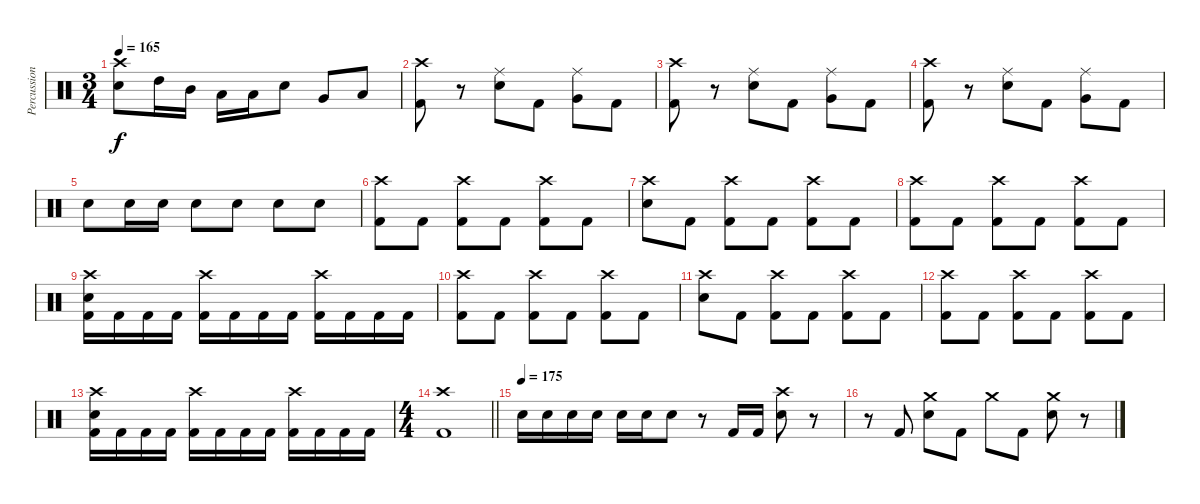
\track ("Percussion (Moose)" "Percussion") {instrument percussion}
\staff {score}
\articulation defaults
\ts (3 4)
\tempo 165
\clef neutral
\ks c
("Crash high (hit)" "Electric Snare (hit)").8{dy f} "High Tom (hit)".16 "Mid Tom (hit)".16 "Low Tom (hit)".16 "Low Tom (hit)".16 "Electric Snare (hit)".8 "Very Low Tom (hit)".8 "Low Floor Tom (hit)".8 |
("Crash high (hit)" "Kick (hit) 2").8 r.8 ("Ride (middle)" "Electric Snare (hit)").8 "Kick (hit) 2".8 ("Ride (middle)" "Very Low Tom (hit)").8 "Kick (hit) 2".8 |
("Crash high (hit)" "Kick (hit) 2").8 r.8 ("Ride (middle)" "Electric Snare (hit)").8 "Kick (hit) 2".8 ("Ride (middle)" "Very Low Tom (hit)").8 "Kick (hit) 2".8 |
("Crash high (hit)" "Kick (hit) 2").8 r.8 ("Ride (middle)" "Electric Snare (hit)").8 "Kick (hit) 2".8 ("Ride (middle)" "Very Low Tom (hit)").8 "Kick (hit) 2".8 |
"Electric Snare (hit)".8 "Electric Snare (hit)".16 "Electric Snare (hit)".16 "Electric Snare (hit)".8 "Electric Snare (hit)".8 "Electric Snare (hit)".8 "Electric Snare (hit)".8 |
("Crash high (hit)" "Kick (hit) 2").8 "Kick (hit) 2".8 ("Crash high (hit)" "Kick (hit) 2").8 "Kick (hit) 2".8 ("Crash high (hit)" "Kick (hit) 2").8 "Kick (hit) 2".8 |
("Crash high (hit)" "Electric Snare (hit)").8 "Kick (hit) 2".8 ("Crash high (hit)" "Kick (hit) 2").8 "Kick (hit) 2".8 ("Crash high (hit)" "Kick (hit) 2").8 "Kick (hit) 2".8 |
("Crash high (hit)" "Kick (hit) 2").8 "Kick (hit) 2".8 ("Crash high (hit)" "Kick (hit) 2").8 "Kick (hit) 2".8 ("Crash high (hit)" "Kick (hit) 2").8 "Kick (hit) 2".8 |
("Crash high (hit)" "Electric Snare (hit)" "Kick (hit) 2").16 "Kick (hit) 2".16 "Kick (hit) 2".16 "Kick (hit) 2".16 ("Crash high (hit)" "Kick (hit) 2").16 "Kick (hit) 2".16 "Kick (hit) 2".16 "Kick (hit) 2".16 ("Crash high (hit)" "Kick (hit) 2").16 "Kick (hit) 2".16 "Kick (hit) 2".16 "Kick (hit) 2".16 |
("Crash high (hit)" "Kick (hit) 2").8 "Kick (hit) 2".8 ("Crash high (hit)" "Kick (hit) 2").8 "Kick (hit) 2".8 ("Crash high (hit)" "Kick (hit) 2").8 "Kick (hit) 2".8 |
("Crash high (hit)" "Electric Snare (hit)").8 "Kick (hit) 2".8 ("Crash high (hit)" "Kick (hit) 2").8 "Kick (hit) 2".8 ("Crash high (hit)" "Kick (hit) 2").8 "Kick (hit) 2".8 |
("Crash high (hit)" "Kick (hit) 2").8 "Kick (hit) 2".8 ("Crash high (hit)" "Kick (hit) 2").8 "Kick (hit) 2".8 ("Crash high (hit)" "Kick (hit) 2").8 "Kick (hit) 2".8 |
("Crash high (hit)" "Electric Snare (hit)" "Kick (hit) 2").16 "Kick (hit) 2".16 "Kick (hit) 2".16 "Kick (hit) 2".16 ("Crash high (hit)" "Kick (hit) 2").16 "Kick (hit) 2".16 "Kick (hit) 2".16 "Kick (hit) 2".16 ("Crash high (hit)" "Kick (hit) 2").16 "Kick (hit) 2".16 "Kick (hit) 2".16 "Kick (hit) 2".16 |
\ts (4 4)
\barLineRight lightlight
("Crash high (hit)" "Kick (hit) 2").1 |
\tempo (175)
"Electric Snare (hit)".16 "Electric Snare (hit)".16 "Electric Snare (hit)".16 "Electric Snare (hit)".16 "Electric Snare (hit)".16 "Electric Snare (hit)".16 "Electric Snare (hit)".8 r.8 "Kick (hit) 2".16 "Kick (hit) 2".16 ("Crash high (hit)" "Electric Snare (hit)").8 r.8 |
r.8 "Kick (hit) 2".8 ("Crash medium (hit)" "Electric Snare (hit)").8 "Kick (hit) 2".8 "Crash medium (hit)".8 "Kick (hit) 2".8 ("Crash medium (hit)" "Electric Snare (hit)").8 r.8
